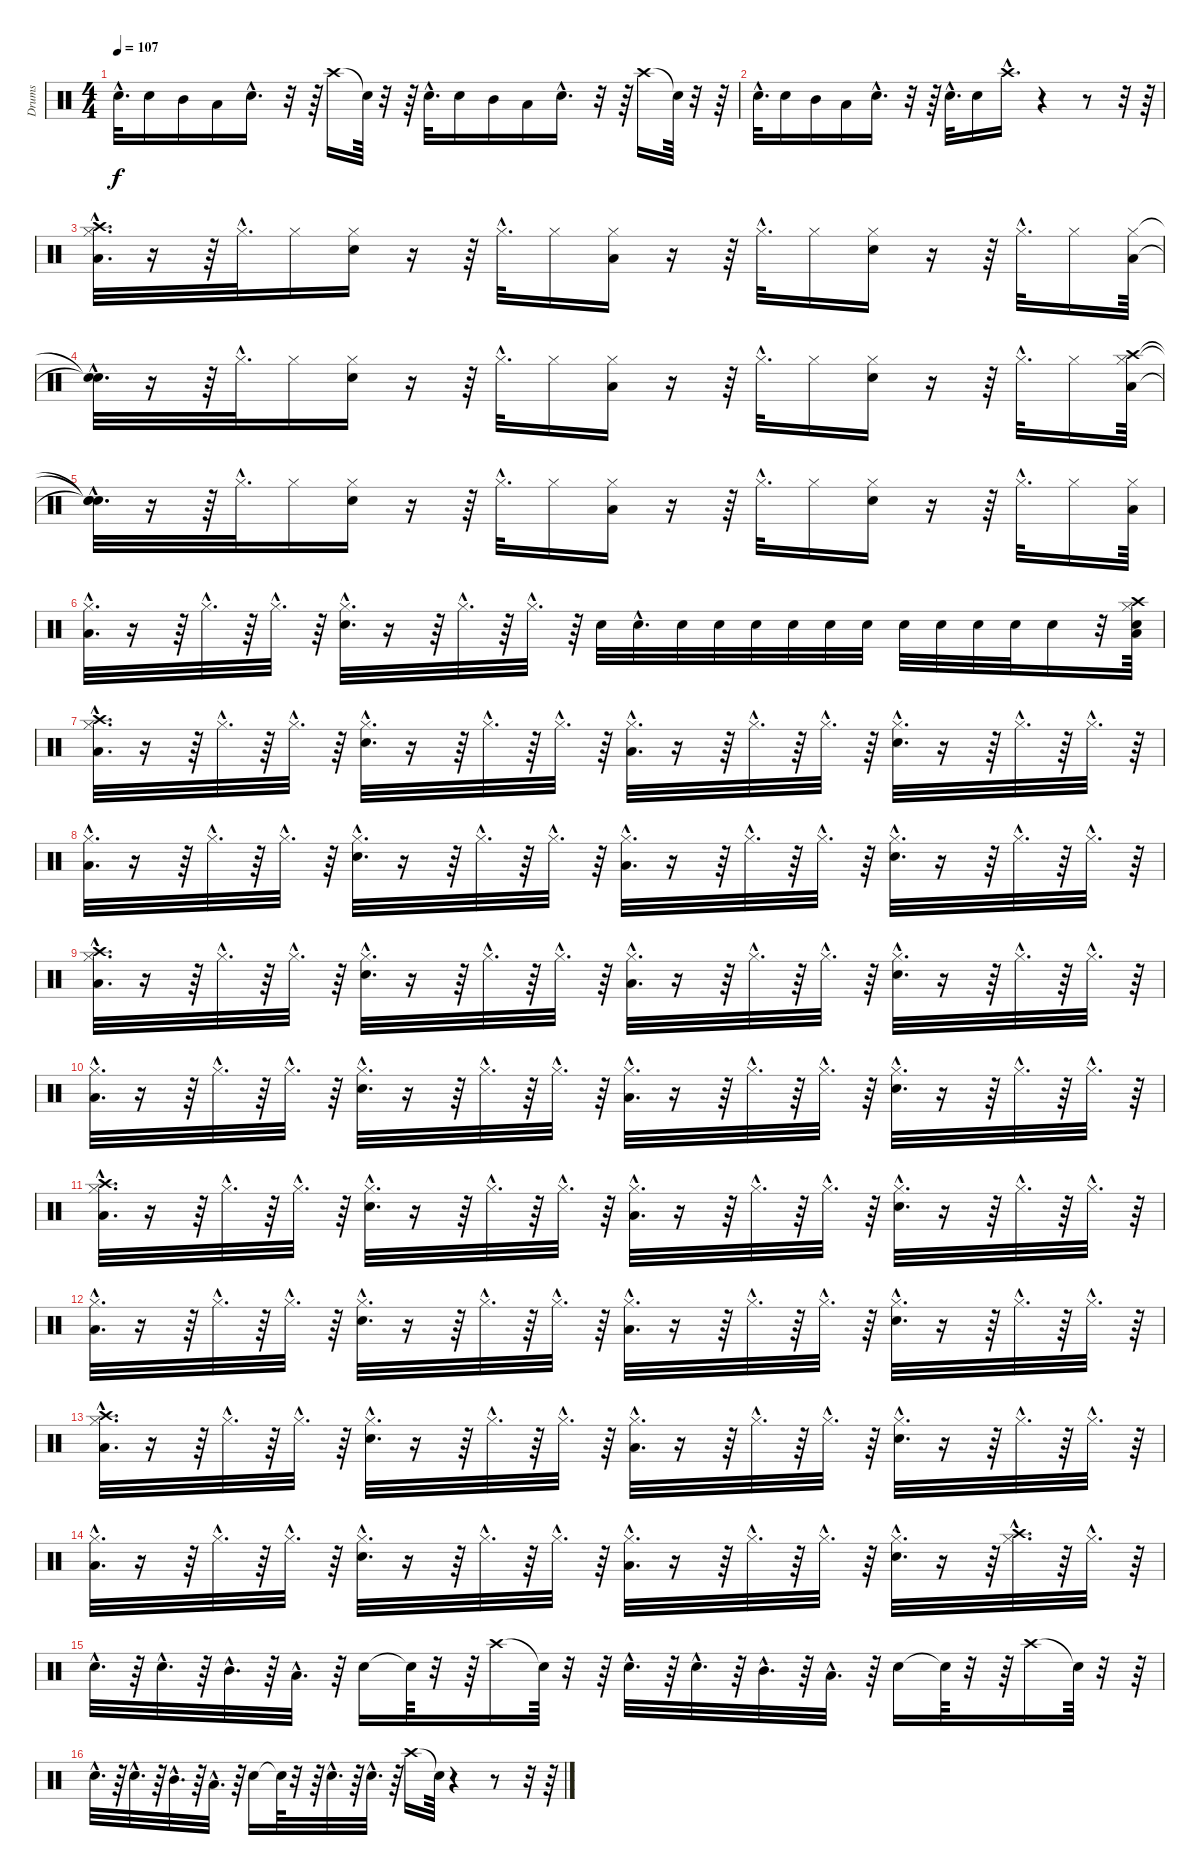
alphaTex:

\track ("Drums" "Drums") {instrument percussion}
\staff {score}
\articulation defaults
\ts (4 4)
\tempo 107
\clef neutral
\ks c "Snare (hit) 2"{hac}.32{d dy f} "Snare (hit) 2".16 "Mid Tom (hit)".16 "Low Tom (hit)".16 "Snare (hit) 2"{hac}.16{d}
r.32 r.64 "Crash high (hit)".16 "Snare (hit)"{t}.64 r.32 r.64 "Snare (hit) 2"{hac}.32{d} "Snare (hit) 2".16 "Mid Tom (hit)".16 "Low Tom (hit)".16 "Snare (hit) 2"{hac}.16{d} r.32 r.64 "Crash high (hit)".16 "Snare (hit)"{t}.64 r.32 r.64 |
"Snare (hit) 2"{hac}.32{d} "Snare (hit) 2".16 "Mid Tom (hit)".16 "Low Tom (hit)".16 "Snare (hit) 2"{hac}.16{d} r.32 r.64 "Snare (hit) 2"{hac}.32{d} "Snare (hit) 2".16 "Crash high (hit)"{hac}.16{d} r.4 r.8 r.32 r.64 |
("Hi-Hat (closed)"{hac} "Crash high (hit)"{hac} "Low Tom (hit)"{hac}).32{d} r.16 r.64 "Hi-Hat (closed)"{hac}.32{d} "Hi-Hat (closed)".16 ("Hi-Hat (closed)" "Snare (hit) 2").16 r.16 r.64 "Hi-Hat (closed)"{hac}.32{d} "Hi-Hat (closed)".16 ("Hi-Hat (closed)" "Low Tom (hit)").16 r.16 r.64 "Hi-Hat (closed)"{hac}.32{d} "Hi-Hat (closed)".16 ("Hi-Hat (closed)" "Snare (hit) 2").16 r.16 r.64 "Hi-Hat (closed)"{hac}.32{d} "Hi-Hat (closed)".16 ("Hi-Hat (closed)" "Low Tom (hit)").64 |
("Snare (hit)"{hac t} "Snare (hit)"{hac t}).32{d} r.16 r.64 "Hi-Hat (closed)"{hac}.32{d} "Hi-Hat (closed)".16 ("Hi-Hat (closed)" "Snare (hit) 2").16 r.16 r.64 "Hi-Hat (closed)"{hac}.32{d} "Hi-Hat (closed)".16 ("Hi-Hat (closed)" "Low Tom (hit)").16 r.16 r.64 "Hi-Hat (closed)"{hac}.32{d} "Hi-Hat (closed)".16 ("Hi-Hat (closed)" "Snare (hit) 2").16 r.16 r.64 "Hi-Hat (closed)"{hac}.32{d} "Hi-Hat (closed)".16 ("Hi-Hat (closed)" "Crash high (hit)" "Low Tom (hit)").64 |
("Snare (hit)"{hac t} "Snare (hit)"{hac t} "Snare (hit)"{hac t}).32{d} r.16 r.64 "Hi-Hat (closed)"{hac}.32{d} "Hi-Hat (closed)".16 ("Hi-Hat (closed)" "Snare (hit) 2").16 r.16 r.64 "Hi-Hat (closed)"{hac}.32{d} "Hi-Hat (closed)".16 ("Hi-Hat (closed)" "Low Tom (hit)").16 r.16 r.64 "Hi-Hat (closed)"{hac}.32{d} "Hi-Hat (closed)".16 ("Hi-Hat (closed)" "Snare (hit) 2").16 r.16 r.64 "Hi-Hat (closed)"{hac}.32{d} "Hi-Hat (closed)".16 ("Hi-Hat (closed)" "Low Tom (hit)").64 |
("Hi-Hat (closed)"{hac} "Low Tom (hit)"{hac}).32{d} r.16 r.64 "Hi-Hat (closed)"{hac}.32{d} r.64 "Hi-Hat (closed)"{hac}.32{d} r.64 ("Hi-Hat (closed)"{hac} "Snare (hit) 2"{hac}).32{d} r.16 r.64 "Hi-Hat (closed)"{hac}.32{d} r.64 "Hi-Hat (closed)"{hac}.32{d} r.64 "Snare (hit) 2".32 "Snare (hit) 2"{hac}.32{d} "Snare (hit) 2".32 "Snare (hit) 2".32 "Snare (hit) 2".32 "Snare (hit) 2".32 "Snare (hit) 2".32 "Snare (hit) 2".32 "Snare (hit) 2".32 "Snare (hit) 2".32 "Snare (hit) 2".32 "Snare (hit) 2".32 "Snare (hit) 2".16 r.32 ("Hi-Hat (closed)" "Crash high (hit)" "Low Tom (hit)" "Snare (hit) 2").64 |
("Hi-Hat (closed)"{hac} "Crash high (hit)"{hac} "Low Tom (hit)"{hac}).32{d} r.16 r.64 "Hi-Hat (closed)"{hac}.32{d} r.64 "Hi-Hat (closed)"{hac}.32{d} r.64 ("Hi-Hat (closed)"{hac} "Snare (hit) 2"{hac}).32{d} r.16 r.64 "Hi-Hat (closed)"{hac}.32{d} r.64 "Hi-Hat (closed)"{hac}.32{d} r.64 ("Hi-Hat (closed)"{hac} "Low Tom (hit)"{hac}).32{d} r.16 r.64 "Hi-Hat (closed)"{hac}.32{d} r.64 "Hi-Hat (closed)"{hac}.32{d} r.64 ("Hi-Hat (closed)"{hac} "Snare (hit) 2"{hac}).32{d} r.16 r.64 "Hi-Hat (closed)"{hac}.32{d} r.64 "Hi-Hat (closed)"{hac}.32{d} r.64 |
("Hi-Hat (closed)"{hac} "Low Tom (hit)"{hac}).32{d} r.16 r.64 "Hi-Hat (closed)"{hac}.32{d} r.64 "Hi-Hat (closed)"{hac}.32{d} r.64 ("Hi-Hat (closed)"{hac} "Snare (hit) 2"{hac}).32{d} r.16 r.64 "Hi-Hat (closed)"{hac}.32{d} r.64 "Hi-Hat (closed)"{hac}.32{d} r.64 ("Hi-Hat (closed)"{hac} "Low Tom (hit)"{hac}).32{d} r.16 r.64 "Hi-Hat (closed)"{hac}.32{d} r.64 "Hi-Hat (closed)"{hac}.32{d} r.64 ("Hi-Hat (closed)"{hac} "Snare (hit) 2"{hac}).32{d} r.16 r.64 "Hi-Hat (closed)"{hac}.32{d} r.64 "Hi-Hat (closed)"{hac}.32{d} r.64 |
("Hi-Hat (closed)"{hac} "Crash high (hit)"{hac} "Low Tom (hit)"{hac}).32{d} r.16 r.64 "Hi-Hat (closed)"{hac}.32{d} r.64 "Hi-Hat (closed)"{hac}.32{d} r.64 ("Hi-Hat (closed)"{hac} "Snare (hit) 2"{hac}).32{d} r.16 r.64 "Hi-Hat (closed)"{hac}.32{d} r.64 "Hi-Hat (closed)"{hac}.32{d} r.64 ("Hi-Hat (closed)"{hac} "Low Tom (hit)"{hac}).32{d} r.16 r.64 "Hi-Hat (closed)"{hac}.32{d} r.64 "Hi-Hat (closed)"{hac}.32{d} r.64 ("Hi-Hat (closed)"{hac} "Snare (hit) 2"{hac}).32{d} r.16 r.64 "Hi-Hat (closed)"{hac}.32{d} r.64 "Hi-Hat (closed)"{hac}.32{d} r.64 |
("Hi-Hat (closed)"{hac} "Low Tom (hit)"{hac}).32{d} r.16 r.64 "Hi-Hat (closed)"{hac}.32{d} r.64 "Hi-Hat (closed)"{hac}.32{d} r.64 ("Hi-Hat (closed)"{hac} "Snare (hit) 2"{hac}).32{d} r.16 r.64 "Hi-Hat (closed)"{hac}.32{d} r.64 "Hi-Hat (closed)"{hac}.32{d} r.64 ("Hi-Hat (closed)"{hac} "Low Tom (hit)"{hac}).32{d} r.16 r.64 "Hi-Hat (closed)"{hac}.32{d} r.64 "Hi-Hat (closed)"{hac}.32{d} r.64 ("Hi-Hat (closed)"{hac} "Snare (hit) 2"{hac}).32{d} r.16 r.64 "Hi-Hat (closed)"{hac}.32{d} r.64 "Hi-Hat (closed)"{hac}.32{d} r.64 |
("Hi-Hat (closed)"{hac} "Crash high (hit)"{hac} "Low Tom (hit)"{hac}).32{d} r.16 r.64 "Hi-Hat (closed)"{hac}.32{d} r.64 "Hi-Hat (closed)"{hac}.32{d} r.64 ("Hi-Hat (closed)"{hac} "Snare (hit) 2"{hac}).32{d} r.16 r.64 "Hi-Hat (closed)"{hac}.32{d} r.64 "Hi-Hat (closed)"{hac}.32{d} r.64 ("Hi-Hat (closed)"{hac} "Low Tom (hit)"{hac}).32{d} r.16 r.64 "Hi-Hat (closed)"{hac}.32{d} r.64 "Hi-Hat (closed)"{hac}.32{d} r.64 ("Hi-Hat (closed)"{hac} "Snare (hit) 2"{hac}).32{d} r.16 r.64 "Hi-Hat (closed)"{hac}.32{d} r.64 "Hi-Hat (closed)"{hac}.32{d} r.64 |
("Hi-Hat (closed)"{hac} "Low Tom (hit)"{hac}).32{d} r.16 r.64 "Hi-Hat (closed)"{hac}.32{d} r.64 "Hi-Hat (closed)"{hac}.32{d} r.64 ("Hi-Hat (closed)"{hac} "Snare (hit) 2"{hac}).32{d} r.16 r.64 "Hi-Hat (closed)"{hac}.32{d} r.64 "Hi-Hat (closed)"{hac}.32{d} r.64 ("Hi-Hat (closed)"{hac} "Low Tom (hit)"{hac}).32{d} r.16 r.64 "Hi-Hat (closed)"{hac}.32{d} r.64 "Hi-Hat (closed)"{hac}.32{d} r.64 ("Hi-Hat (closed)"{hac} "Snare (hit) 2"{hac}).32{d} r.16 r.64 "Hi-Hat (closed)"{hac}.32{d} r.64 "Hi-Hat (closed)"{hac}.32{d} r.64 |
("Hi-Hat (closed)"{hac} "Crash high (hit)"{hac} "Low Tom (hit)"{hac}).32{d} r.16 r.64 "Hi-Hat (closed)"{hac}.32{d} r.64 "Hi-Hat (closed)"{hac}.32{d} r.64 ("Hi-Hat (closed)"{hac} "Snare (hit) 2"{hac}).32{d} r.16 r.64 "Hi-Hat (closed)"{hac}.32{d} r.64 "Hi-Hat (closed)"{hac}.32{d} r.64 ("Hi-Hat (closed)"{hac} "Low Tom (hit)"{hac}).32{d} r.16 r.64 "Hi-Hat (closed)"{hac}.32{d} r.64 "Hi-Hat (closed)"{hac}.32{d} r.64 ("Hi-Hat (closed)"{hac} "Snare (hit) 2"{hac}).32{d} r.16 r.64 "Hi-Hat (closed)"{hac}.32{d} r.64 "Hi-Hat (closed)"{hac}.32{d} r.64 |
("Hi-Hat (closed)"{hac} "Low Tom (hit)"{hac}).32{d} r.16 r.64 "Hi-Hat (closed)"{hac}.32{d} r.64 "Hi-Hat (closed)"{hac}.32{d} r.64 ("Hi-Hat (closed)"{hac} "Snare (hit) 2"{hac}).32{d} r.16 r.64 "Hi-Hat (closed)"{hac}.32{d} r.64 "Hi-Hat (closed)"{hac}.32{d} r.64 ("Hi-Hat (closed)"{hac} "Low Tom (hit)"{hac}).32{d} r.16 r.64 "Hi-Hat (closed)"{hac}.32{d} r.64 "Hi-Hat (closed)"{hac}.32{d} r.64 ("Hi-Hat (closed)"{hac} "Snare (hit) 2"{hac}).32{d} r.16 r.64 ("Crash high (hit)"{hac} "Hi-Hat (closed)"{hac}).32{d} r.64 "Hi-Hat (closed)"{hac}.32{d} r.64 |
"Snare (hit) 2"{hac}.32{d} r.64 "Snare (hit) 2"{hac}.32{d} r.64 "Mid Tom (hit)"{hac}.32{d} r.64 "Low Tom (hit)"{hac}.32{d} r.64 "Snare (hit) 2".16 "Snare (hit)"{t}.64 r.32 r.64 "Crash high (hit)".16 "Snare (hit)"{t}.64 r.32 r.64 "Snare (hit) 2"{hac}.32{d} r.64 "Snare (hit) 2"{hac}.32{d} r.64 "Mid Tom (hit)"{hac}.32{d} r.64 "Low Tom (hit)"{hac}.32{d} r.64 "Snare (hit) 2".16 "Snare (hit)"{t}.64 r.32 r.64 "Crash high (hit)".16 "Snare (hit)"{t}.64 r.32 r.64 |
"Snare (hit) 2"{hac}.32{d} r.64 "Snare (hit) 2"{hac}.32{d} r.64 "Mid Tom (hit)"{hac}.32{d} r.64 "Low Tom (hit)"{hac}.32{d} r.64 "Snare (hit) 2".16 "Snare (hit)"{t}.64 r.32 r.64 "Snare (hit) 2"{hac}.32{d} r.64 "Snare (hit) 2"{hac}.32{d} r.64 "Crash high (hit)".16 "Snare (hit)"{t}.64 r.4 r.8 r.32 r.64
